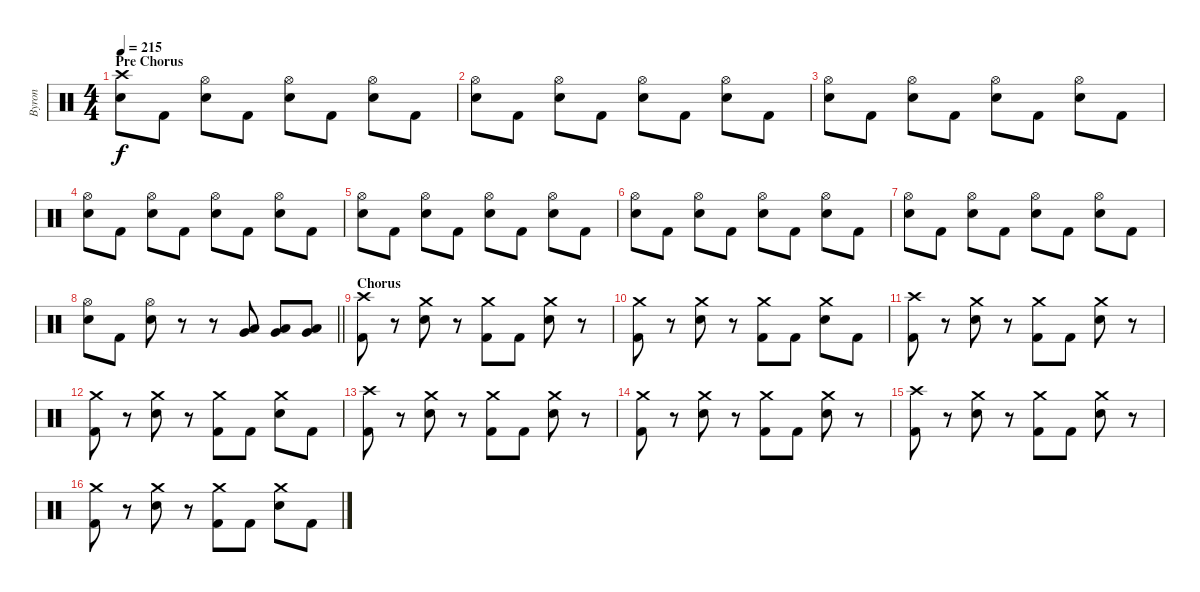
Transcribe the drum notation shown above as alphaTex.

\track ("Byron" "Byron") {instrument percussion}
\staff {score}
\articulation defaults
\ts (4 4)
\section ("" "Pre Chorus")
\tempo 215
\clef neutral
\ks c
("Crash high (hit)" "Electric Snare (hit)").8{dy f} "Kick (hit) 2".8 ("Hi-Hat (open)" "Electric Snare (hit)").8 "Kick (hit) 2".8 ("Hi-Hat (open)" "Electric Snare (hit)").8 "Kick (hit) 2".8 ("Hi-Hat (open)" "Electric Snare (hit)").8 "Kick (hit) 2".8 |
("Hi-Hat (open)" "Electric Snare (hit)").8 "Kick (hit) 2".8 ("Hi-Hat (open)" "Electric Snare (hit)").8 "Kick (hit) 2".8 ("Hi-Hat (open)" "Electric Snare (hit)").8 "Kick (hit) 2".8 ("Hi-Hat (open)" "Electric Snare (hit)").8 "Kick (hit) 2".8 |
("Hi-Hat (open)" "Electric Snare (hit)").8 "Kick (hit) 2".8 ("Hi-Hat (open)" "Electric Snare (hit)").8 "Kick (hit) 2".8 ("Hi-Hat (open)" "Electric Snare (hit)").8 "Kick (hit) 2".8 ("Hi-Hat (open)" "Electric Snare (hit)").8 "Kick (hit) 2".8 |
("Hi-Hat (open)" "Electric Snare (hit)").8 "Kick (hit) 2".8 ("Hi-Hat (open)" "Electric Snare (hit)").8 "Kick (hit) 2".8 ("Hi-Hat (open)" "Electric Snare (hit)").8 "Kick (hit) 2".8 ("Hi-Hat (open)" "Electric Snare (hit)").8 "Kick (hit) 2".8 |
("Hi-Hat (open)" "Electric Snare (hit)").8 "Kick (hit) 2".8 ("Hi-Hat (open)" "Electric Snare (hit)").8 "Kick (hit) 2".8 ("Hi-Hat (open)" "Electric Snare (hit)").8 "Kick (hit) 2".8 ("Hi-Hat (open)" "Electric Snare (hit)").8 "Kick (hit) 2".8 |
("Hi-Hat (open)" "Electric Snare (hit)").8 "Kick (hit) 2".8 ("Hi-Hat (open)" "Electric Snare (hit)").8 "Kick (hit) 2".8 ("Hi-Hat (open)" "Electric Snare (hit)").8 "Kick (hit) 2".8 ("Hi-Hat (open)" "Electric Snare (hit)").8 "Kick (hit) 2".8 |
("Hi-Hat (open)" "Electric Snare (hit)").8 "Kick (hit) 2".8 ("Hi-Hat (open)" "Electric Snare (hit)").8 "Kick (hit) 2".8 ("Hi-Hat (open)" "Electric Snare (hit)").8 "Kick (hit) 2".8 ("Hi-Hat (open)" "Electric Snare (hit)").8 "Kick (hit) 2".8 |
\barLineRight lightlight
("Hi-Hat (open)" "Electric Snare (hit)").8 "Kick (hit) 2".8 ("Hi-Hat (open)" "Electric Snare (hit)").8 r.8 r.8 ("Low Tom (hit)" "Very Low Tom (hit)").8 ("Low Tom (hit)" "Very Low Tom (hit)").8 ("Low Tom (hit)" "Very Low Tom (hit)").8 |
\section ("" "Chorus")
("Crash high (hit)" "Kick (hit) 2").8 r.8 ("Crash medium (hit)" "Electric Snare (hit)").8 r.8 ("Crash medium (hit)" "Kick (hit) 2").8 "Kick (hit) 2".8 ("Crash medium (hit)" "Electric Snare (hit)").8 r.8 |
("Crash medium (hit)" "Kick (hit) 2").8 r.8 ("Crash medium (hit)" "Electric Snare (hit)").8 r.8 ("Crash medium (hit)" "Kick (hit) 2").8 "Kick (hit) 2".8 ("Crash medium (hit)" "Electric Snare (hit)").8 "Kick (hit) 2".8 |
("Crash high (hit)" "Kick (hit) 2").8 r.8 ("Crash medium (hit)" "Electric Snare (hit)").8 r.8 ("Crash medium (hit)" "Kick (hit) 2").8 "Kick (hit) 2".8 ("Crash medium (hit)" "Electric Snare (hit)").8 r.8 |
("Crash medium (hit)" "Kick (hit) 2").8 r.8 ("Crash medium (hit)" "Electric Snare (hit)").8 r.8 ("Crash medium (hit)" "Kick (hit) 2").8 "Kick (hit) 2".8 ("Crash medium (hit)" "Electric Snare (hit)").8 "Kick (hit) 2".8 |
("Crash high (hit)" "Kick (hit) 2").8 r.8 ("Crash medium (hit)" "Electric Snare (hit)").8 r.8 ("Crash medium (hit)" "Kick (hit) 2").8 "Kick (hit) 2".8 ("Crash medium (hit)" "Electric Snare (hit)").8 r.8 |
("Crash medium (hit)" "Kick (hit) 2").8 r.8 ("Crash medium (hit)" "Electric Snare (hit)").8 r.8 ("Crash medium (hit)" "Kick (hit) 2").8 "Kick (hit) 2".8 ("Crash medium (hit)" "Electric Snare (hit)").8 r.8 |
("Crash high (hit)" "Kick (hit) 2").8 r.8 ("Crash medium (hit)" "Electric Snare (hit)").8 r.8 ("Crash medium (hit)" "Kick (hit) 2").8 "Kick (hit) 2".8 ("Crash medium (hit)" "Electric Snare (hit)").8 r.8 |
("Crash medium (hit)" "Kick (hit) 2").8 r.8 ("Crash medium (hit)" "Electric Snare (hit)").8 r.8 ("Crash medium (hit)" "Kick (hit) 2").8 "Kick (hit) 2".8 ("Crash medium (hit)" "Electric Snare (hit)").8 "Kick (hit) 2".8
